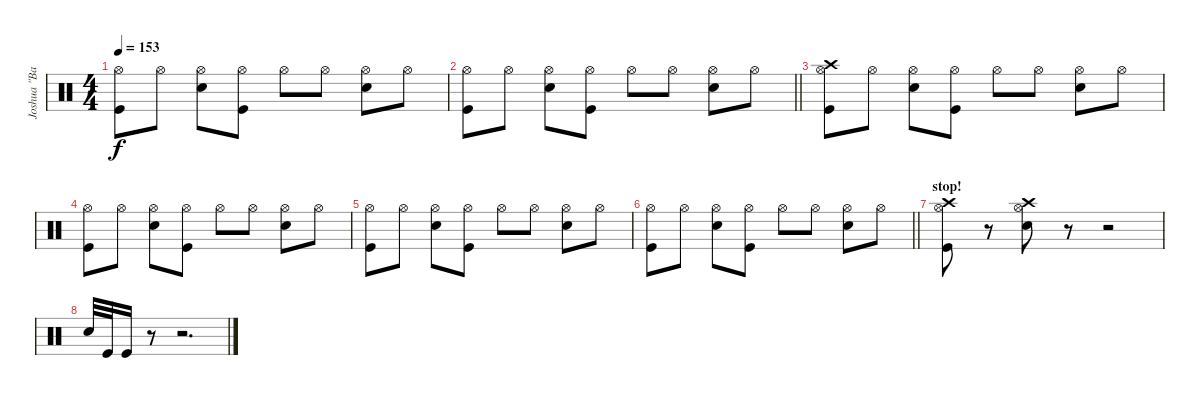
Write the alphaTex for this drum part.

\track ("Joshua \"Baby Duck\" Homme" "Joshua \"Ba") {instrument percussion}
\staff {score}
\articulation defaults
\ts (4 4)
\tempo 153
\clef neutral
\ks c
("Kick (hit)" "Hi-Hat (open)").8{dy f} "Hi-Hat (open)".8 ("Electric Snare (hit)" "Hi-Hat (open)").8 ("Kick (hit)" "Hi-Hat (open)").8 "Hi-Hat (open)".8 "Hi-Hat (open)".8 ("Electric Snare (hit)" "Hi-Hat (open)").8 "Hi-Hat (open)".8 |
\barLineRight lightlight
("Kick (hit)" "Hi-Hat (open)").8 "Hi-Hat (open)".8 ("Electric Snare (hit)" "Hi-Hat (open)").8 ("Kick (hit)" "Hi-Hat (open)").8 "Hi-Hat (open)".8 "Hi-Hat (open)".8 ("Electric Snare (hit)" "Hi-Hat (open)").8 "Hi-Hat (open)".8 |
\section ("" "")
("Kick (hit)" "Hi-Hat (open)" "Crash high (hit)").8 "Hi-Hat (open)".8 ("Electric Snare (hit)" "Hi-Hat (open)").8 ("Kick (hit)" "Hi-Hat (open)").8 "Hi-Hat (open)".8 "Hi-Hat (open)".8 ("Electric Snare (hit)" "Hi-Hat (open)").8 "Hi-Hat (open)".8 |
("Kick (hit)" "Hi-Hat (open)").8 "Hi-Hat (open)".8 ("Electric Snare (hit)" "Hi-Hat (open)").8 ("Kick (hit)" "Hi-Hat (open)").8 "Hi-Hat (open)".8 "Hi-Hat (open)".8 ("Electric Snare (hit)" "Hi-Hat (open)").8 "Hi-Hat (open)".8 |
("Kick (hit)" "Hi-Hat (open)").8 "Hi-Hat (open)".8 ("Electric Snare (hit)" "Hi-Hat (open)").8 ("Kick (hit)" "Hi-Hat (open)").8 "Hi-Hat (open)".8 "Hi-Hat (open)".8 ("Electric Snare (hit)" "Hi-Hat (open)").8 "Hi-Hat (open)".8 |
\barLineRight lightlight
("Kick (hit)" "Hi-Hat (open)").8 "Hi-Hat (open)".8 ("Electric Snare (hit)" "Hi-Hat (open)").8 ("Kick (hit)" "Hi-Hat (open)").8 "Hi-Hat (open)".8 "Hi-Hat (open)".8 ("Electric Snare (hit)" "Hi-Hat (open)").8 "Hi-Hat (open)".8 |
\section ("" "stop!")
("Kick (hit)" "Hi-Hat (open)" "Crash high (hit)").8 r.8 ("Electric Snare (hit)" "Hi-Hat (open)" "Crash high (hit)").8 r.8 r.2 |
"Electric Snare (hit)".32 "Kick (hit)".32 "Kick (hit)".16 r.8 r.2{d}
